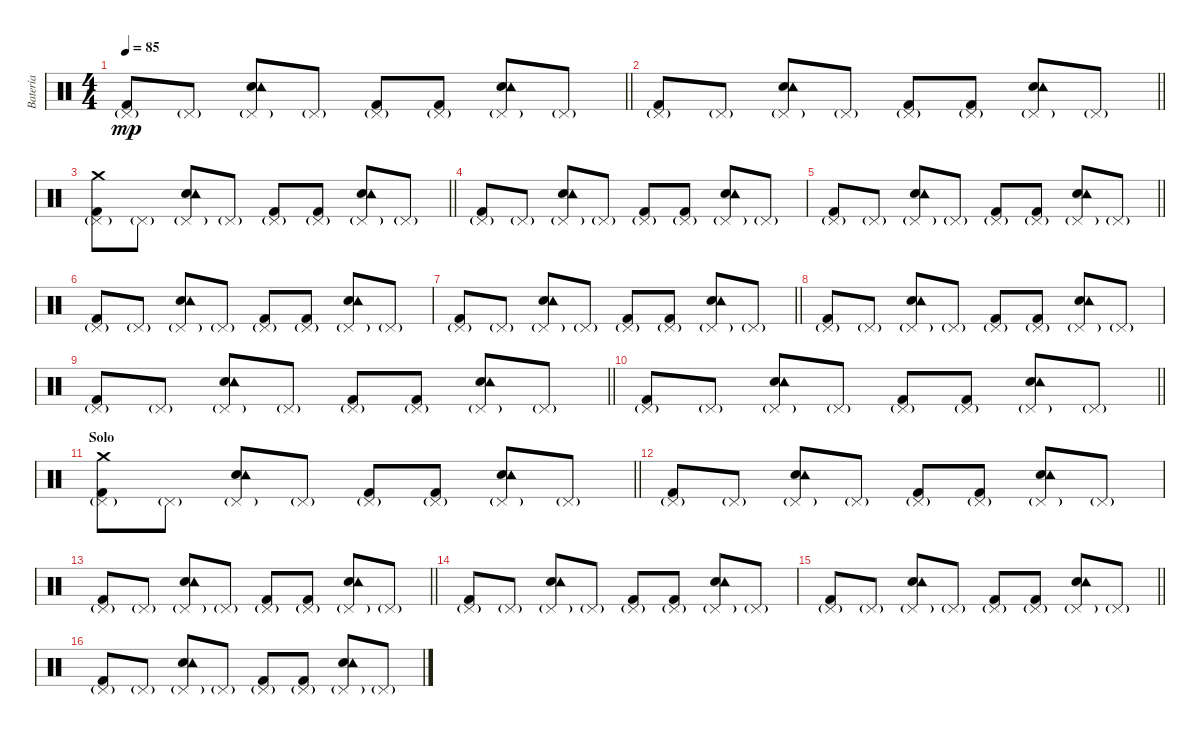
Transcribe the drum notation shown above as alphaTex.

\track ("Batería" "Batería") {instrument percussion}
\staff {score}
\articulation defaults
\ts (4 4)
\tempo 85
\clef neutral
\barLineRight lightlight
\ks c
("Pedal Hi-Hat (hit)"{g} "Kick (hit) 2").8{dy mp} "Pedal Hi-Hat (hit)"{g}.8 ("Pedal Hi-Hat (hit)"{g} "Electric Snare (hit)" "Tambourine (hit)").8 "Pedal Hi-Hat (hit)"{g}.8 ("Pedal Hi-Hat (hit)"{g} "Kick (hit) 2").8 ("Pedal Hi-Hat (hit)"{g} "Kick (hit) 2").8 ("Pedal Hi-Hat (hit)"{g} "Electric Snare (hit)" "Tambourine (hit)").8 "Pedal Hi-Hat (hit)"{g}.8 |
\barLineRight lightlight
("Pedal Hi-Hat (hit)"{g} "Kick (hit) 2").8 "Pedal Hi-Hat (hit)"{g}.8 ("Pedal Hi-Hat (hit)"{g} "Electric Snare (hit)" "Tambourine (hit)").8 "Pedal Hi-Hat (hit)"{g}.8 ("Pedal Hi-Hat (hit)"{g} "Kick (hit) 2").8 ("Pedal Hi-Hat (hit)"{g} "Kick (hit) 2").8 ("Pedal Hi-Hat (hit)"{g} "Electric Snare (hit)" "Tambourine (hit)").8 "Pedal Hi-Hat (hit)"{g}.8 |
\section ("" "")
\barLineRight lightlight
("Pedal Hi-Hat (hit)"{g} "Kick (hit) 2" "Crash medium (hit)").8 "Pedal Hi-Hat (hit)"{g}.8 ("Pedal Hi-Hat (hit)"{g} "Electric Snare (hit)" "Tambourine (hit)").8 "Pedal Hi-Hat (hit)"{g}.8 ("Pedal Hi-Hat (hit)"{g} "Kick (hit) 2").8 ("Pedal Hi-Hat (hit)"{g} "Kick (hit) 2").8 ("Pedal Hi-Hat (hit)"{g} "Electric Snare (hit)" "Tambourine (hit)").8 "Pedal Hi-Hat (hit)"{g}.8 |
("Pedal Hi-Hat (hit)"{g} "Kick (hit) 2").8 "Pedal Hi-Hat (hit)"{g}.8 ("Pedal Hi-Hat (hit)"{g} "Electric Snare (hit)" "Tambourine (hit)").8 "Pedal Hi-Hat (hit)"{g}.8 ("Pedal Hi-Hat (hit)"{g} "Kick (hit) 2").8 ("Pedal Hi-Hat (hit)"{g} "Kick (hit) 2").8 ("Pedal Hi-Hat (hit)"{g} "Electric Snare (hit)" "Tambourine (hit)").8 "Pedal Hi-Hat (hit)"{g}.8 |
\barLineRight lightlight
("Pedal Hi-Hat (hit)"{g} "Kick (hit) 2").8 "Pedal Hi-Hat (hit)"{g}.8 ("Pedal Hi-Hat (hit)"{g} "Electric Snare (hit)" "Tambourine (hit)").8 "Pedal Hi-Hat (hit)"{g}.8 ("Pedal Hi-Hat (hit)"{g} "Kick (hit) 2").8 ("Pedal Hi-Hat (hit)"{g} "Kick (hit) 2").8 ("Pedal Hi-Hat (hit)"{g} "Electric Snare (hit)" "Tambourine (hit)").8 "Pedal Hi-Hat (hit)"{g}.8 |
("Pedal Hi-Hat (hit)"{g} "Kick (hit) 2").8 "Pedal Hi-Hat (hit)"{g}.8 ("Pedal Hi-Hat (hit)"{g} "Electric Snare (hit)" "Tambourine (hit)").8 "Pedal Hi-Hat (hit)"{g}.8 ("Pedal Hi-Hat (hit)"{g} "Kick (hit) 2").8 ("Pedal Hi-Hat (hit)"{g} "Kick (hit) 2").8 ("Pedal Hi-Hat (hit)"{g} "Electric Snare (hit)" "Tambourine (hit)").8 "Pedal Hi-Hat (hit)"{g}.8 |
\barLineRight lightlight
("Pedal Hi-Hat (hit)"{g} "Kick (hit) 2").8 "Pedal Hi-Hat (hit)"{g}.8 ("Pedal Hi-Hat (hit)"{g} "Electric Snare (hit)" "Tambourine (hit)").8 "Pedal Hi-Hat (hit)"{g}.8 ("Pedal Hi-Hat (hit)"{g} "Kick (hit) 2").8 ("Pedal Hi-Hat (hit)"{g} "Kick (hit) 2").8 ("Pedal Hi-Hat (hit)"{g} "Electric Snare (hit)" "Tambourine (hit)").8 "Pedal Hi-Hat (hit)"{g}.8 |
("Pedal Hi-Hat (hit)"{g} "Kick (hit) 2").8 "Pedal Hi-Hat (hit)"{g}.8 ("Pedal Hi-Hat (hit)"{g} "Electric Snare (hit)" "Tambourine (hit)").8 "Pedal Hi-Hat (hit)"{g}.8 ("Pedal Hi-Hat (hit)"{g} "Kick (hit) 2").8 ("Pedal Hi-Hat (hit)"{g} "Kick (hit) 2").8 ("Pedal Hi-Hat (hit)"{g} "Electric Snare (hit)" "Tambourine (hit)").8 "Pedal Hi-Hat (hit)"{g}.8 |
\barLineRight lightlight
("Pedal Hi-Hat (hit)"{g} "Kick (hit) 2").8 "Pedal Hi-Hat (hit)"{g}.8 ("Pedal Hi-Hat (hit)"{g} "Electric Snare (hit)" "Tambourine (hit)").8 "Pedal Hi-Hat (hit)"{g}.8 ("Pedal Hi-Hat (hit)"{g} "Kick (hit) 2").8 ("Pedal Hi-Hat (hit)"{g} "Kick (hit) 2").8 ("Pedal Hi-Hat (hit)"{g} "Electric Snare (hit)" "Tambourine (hit)").8 "Pedal Hi-Hat (hit)"{g}.8 |
\barLineRight lightlight
("Pedal Hi-Hat (hit)"{g} "Kick (hit) 2").8 "Pedal Hi-Hat (hit)"{g}.8 ("Pedal Hi-Hat (hit)"{g} "Electric Snare (hit)" "Tambourine (hit)").8 "Pedal Hi-Hat (hit)"{g}.8 ("Pedal Hi-Hat (hit)"{g} "Kick (hit) 2").8 ("Pedal Hi-Hat (hit)"{g} "Kick (hit) 2").8 ("Pedal Hi-Hat (hit)"{g} "Electric Snare (hit)" "Tambourine (hit)").8 "Pedal Hi-Hat (hit)"{g}.8 |
\section ("" "Solo")
\barLineRight lightlight
("Pedal Hi-Hat (hit)"{g} "Kick (hit) 2" "Crash medium (hit)").8 "Pedal Hi-Hat (hit)"{g}.8 ("Pedal Hi-Hat (hit)"{g} "Electric Snare (hit)" "Tambourine (hit)").8 "Pedal Hi-Hat (hit)"{g}.8 ("Pedal Hi-Hat (hit)"{g} "Kick (hit) 2").8 ("Pedal Hi-Hat (hit)"{g} "Kick (hit) 2").8 ("Pedal Hi-Hat (hit)"{g} "Electric Snare (hit)" "Tambourine (hit)").8 "Pedal Hi-Hat (hit)"{g}.8 |
("Pedal Hi-Hat (hit)"{g} "Kick (hit) 2").8 "Pedal Hi-Hat (hit)"{g}.8 ("Pedal Hi-Hat (hit)"{g} "Electric Snare (hit)" "Tambourine (hit)").8 "Pedal Hi-Hat (hit)"{g}.8 ("Pedal Hi-Hat (hit)"{g} "Kick (hit) 2").8 ("Pedal Hi-Hat (hit)"{g} "Kick (hit) 2").8 ("Pedal Hi-Hat (hit)"{g} "Electric Snare (hit)" "Tambourine (hit)").8 "Pedal Hi-Hat (hit)"{g}.8 |
\barLineRight lightlight
("Pedal Hi-Hat (hit)"{g} "Kick (hit) 2").8 "Pedal Hi-Hat (hit)"{g}.8 ("Pedal Hi-Hat (hit)"{g} "Electric Snare (hit)" "Tambourine (hit)").8 "Pedal Hi-Hat (hit)"{g}.8 ("Pedal Hi-Hat (hit)"{g} "Kick (hit) 2").8 ("Pedal Hi-Hat (hit)"{g} "Kick (hit) 2").8 ("Pedal Hi-Hat (hit)"{g} "Electric Snare (hit)" "Tambourine (hit)").8 "Pedal Hi-Hat (hit)"{g}.8 |
("Pedal Hi-Hat (hit)"{g} "Kick (hit) 2").8 "Pedal Hi-Hat (hit)"{g}.8 ("Pedal Hi-Hat (hit)"{g} "Electric Snare (hit)" "Tambourine (hit)").8 "Pedal Hi-Hat (hit)"{g}.8 ("Pedal Hi-Hat (hit)"{g} "Kick (hit) 2").8 ("Pedal Hi-Hat (hit)"{g} "Kick (hit) 2").8 ("Pedal Hi-Hat (hit)"{g} "Electric Snare (hit)" "Tambourine (hit)").8 "Pedal Hi-Hat (hit)"{g}.8 |
\barLineRight lightlight
("Pedal Hi-Hat (hit)"{g} "Kick (hit) 2").8 "Pedal Hi-Hat (hit)"{g}.8 ("Pedal Hi-Hat (hit)"{g} "Electric Snare (hit)" "Tambourine (hit)").8 "Pedal Hi-Hat (hit)"{g}.8 ("Pedal Hi-Hat (hit)"{g} "Kick (hit) 2").8 ("Pedal Hi-Hat (hit)"{g} "Kick (hit) 2").8 ("Pedal Hi-Hat (hit)"{g} "Electric Snare (hit)" "Tambourine (hit)").8 "Pedal Hi-Hat (hit)"{g}.8 |
("Pedal Hi-Hat (hit)"{g} "Kick (hit) 2").8 "Pedal Hi-Hat (hit)"{g}.8 ("Pedal Hi-Hat (hit)"{g} "Electric Snare (hit)" "Tambourine (hit)").8 "Pedal Hi-Hat (hit)"{g}.8 ("Pedal Hi-Hat (hit)"{g} "Kick (hit) 2").8 ("Pedal Hi-Hat (hit)"{g} "Kick (hit) 2").8 ("Pedal Hi-Hat (hit)"{g} "Electric Snare (hit)" "Tambourine (hit)").8 "Pedal Hi-Hat (hit)"{g}.8
